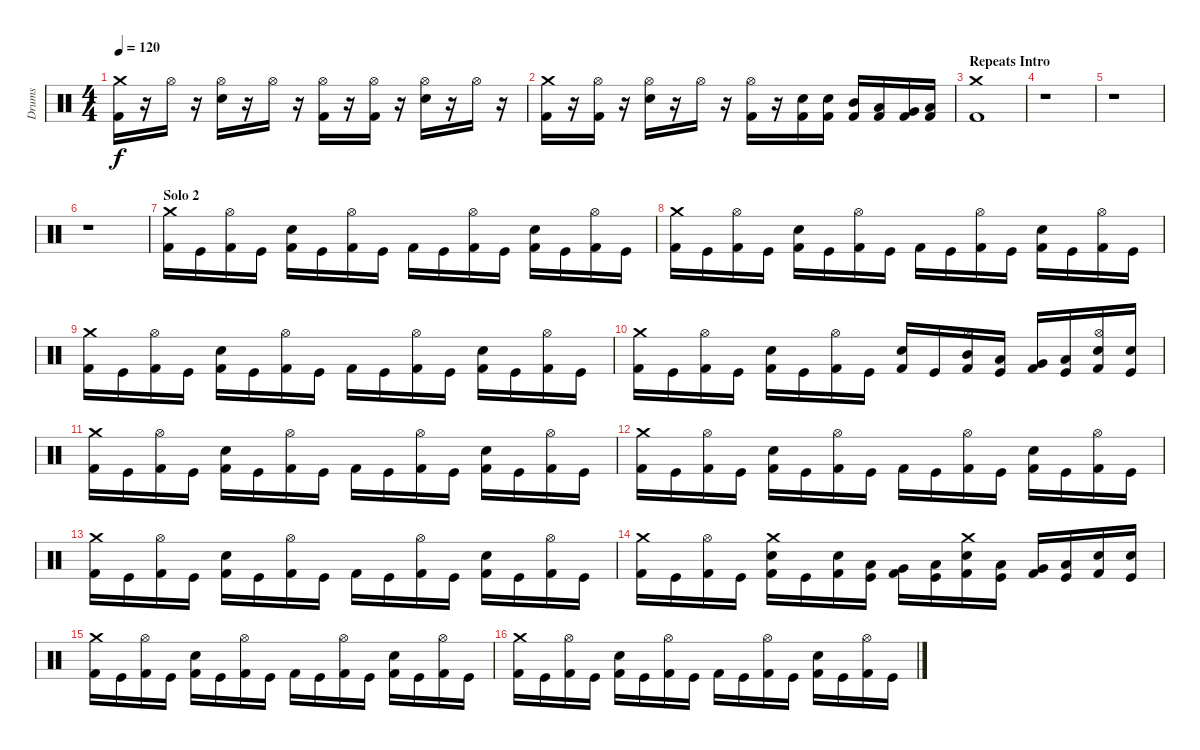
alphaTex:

\track ("Drums" "Drums") {instrument percussion}
\staff {score}
\articulation defaults
\ts (4 4)
\tempo 120
\clef neutral
\ks c
("Crash medium (hit)" "Kick (hit) 2").16{dy f} r.16 "Hi-Hat (open)".16 r.16 ("Hi-Hat (open)" "Electric Snare (hit)").16 r.16 "Hi-Hat (open)".16 r.16 ("Hi-Hat (open)" "Kick (hit) 2").16 r.16 ("Hi-Hat (open)" "Kick (hit) 2").16 r.16 ("Hi-Hat (open)" "Electric Snare (hit)").16 r.16 "Hi-Hat (open)".16 r.16 |
("Crash medium (hit)" "Kick (hit) 2").16 r.16 ("Hi-Hat (open)" "Kick (hit) 2").16 r.16 ("Hi-Hat (open)" "Electric Snare (hit)").16 r.16 "Hi-Hat (open)".16 r.16 ("Hi-Hat (open)" "Kick (hit) 2").16 r.16 ("Electric Snare (hit)" "Kick (hit) 2").16 ("Electric Snare (hit)" "Kick (hit) 2").16 ("Mid Tom (hit)" "Kick (hit) 2").16 ("Low Tom (hit)" "Kick (hit) 2").16 ("Very Low Tom (hit)" "Kick (hit) 2").16 ("Low Floor Tom (hit)" "Kick (hit) 2").16 |
\section ("" "Repeats Intro")
("Crash medium (hit)" "Kick (hit) 2").1 |
r.1 |
r.1 |
r.1 |
\section ("" "Solo 2")
("Crash medium (hit)" "Kick (hit) 2").16 "Kick (hit)".16 ("Hi-Hat (open)" "Kick (hit) 2").16 "Kick (hit)".16 ("Electric Snare (hit)" "Kick (hit) 2").16 "Kick (hit)".16 ("Hi-Hat (open)" "Kick (hit) 2").16 "Kick (hit)".16 "Kick (hit) 2".16 "Kick (hit)".16 ("Hi-Hat (open)" "Kick (hit) 2").16 "Kick (hit)".16 ("Electric Snare (hit)" "Kick (hit) 2").16 "Kick (hit)".16 ("Hi-Hat (open)" "Kick (hit) 2").16 "Kick (hit)".16 |
("Crash medium (hit)" "Kick (hit) 2").16 "Kick (hit)".16 ("Hi-Hat (open)" "Kick (hit) 2").16 "Kick (hit)".16 ("Electric Snare (hit)" "Kick (hit) 2").16 "Kick (hit)".16 ("Hi-Hat (open)" "Kick (hit) 2").16 "Kick (hit)".16 "Kick (hit) 2".16 "Kick (hit)".16 ("Hi-Hat (open)" "Kick (hit) 2").16 "Kick (hit)".16 ("Electric Snare (hit)" "Kick (hit) 2").16 "Kick (hit)".16 ("Hi-Hat (open)" "Kick (hit) 2").16 "Kick (hit)".16 |
("Crash medium (hit)" "Kick (hit) 2").16 "Kick (hit)".16 ("Hi-Hat (open)" "Kick (hit) 2").16 "Kick (hit)".16 ("Electric Snare (hit)" "Kick (hit) 2").16 "Kick (hit)".16 ("Hi-Hat (open)" "Kick (hit) 2").16 "Kick (hit)".16 "Kick (hit) 2".16 "Kick (hit)".16 ("Hi-Hat (open)" "Kick (hit) 2").16 "Kick (hit)".16 ("Electric Snare (hit)" "Kick (hit) 2").16 "Kick (hit)".16 ("Hi-Hat (open)" "Kick (hit) 2").16 "Kick (hit)".16 |
("Crash medium (hit)" "Kick (hit) 2").16 "Kick (hit)".16 ("Hi-Hat (open)" "Kick (hit) 2").16 "Kick (hit)".16 ("Electric Snare (hit)" "Kick (hit) 2").16 "Kick (hit)".16 ("Hi-Hat (open)" "Kick (hit) 2").16 "Kick (hit)".16 ("Electric Snare (hit)" "Kick (hit) 2").16 "Kick (hit)".16 ("Hi-Hat (open)" "Mid Tom (hit)" "Kick (hit) 2").16 ("Low Tom (hit)" "Kick (hit)").16 ("Very Low Tom (hit)" "Kick (hit) 2").16 ("Low Floor Tom (hit)" "Kick (hit)").16 ("Hi-Hat (open)" "Electric Snare (hit)" "Kick (hit) 2").16 ("Electric Snare (hit)" "Kick (hit)").16 |
("Crash medium (hit)" "Kick (hit) 2").16 "Kick (hit)".16 ("Hi-Hat (open)" "Kick (hit) 2").16 "Kick (hit)".16 ("Electric Snare (hit)" "Kick (hit) 2").16 "Kick (hit)".16 ("Hi-Hat (open)" "Kick (hit) 2").16 "Kick (hit)".16 "Kick (hit) 2".16 "Kick (hit)".16 ("Hi-Hat (open)" "Kick (hit) 2").16 "Kick (hit)".16 ("Electric Snare (hit)" "Kick (hit) 2").16 "Kick (hit)".16 ("Hi-Hat (open)" "Kick (hit) 2").16 "Kick (hit)".16 |
("Crash medium (hit)" "Kick (hit) 2").16 "Kick (hit)".16 ("Hi-Hat (open)" "Kick (hit) 2").16 "Kick (hit)".16 ("Electric Snare (hit)" "Kick (hit) 2").16 "Kick (hit)".16 ("Hi-Hat (open)" "Kick (hit) 2").16 "Kick (hit)".16 "Kick (hit) 2".16 "Kick (hit)".16 ("Hi-Hat (open)" "Kick (hit) 2").16 "Kick (hit)".16 ("Electric Snare (hit)" "Kick (hit) 2").16 "Kick (hit)".16 ("Hi-Hat (open)" "Kick (hit) 2").16 "Kick (hit)".16 |
("Crash medium (hit)" "Kick (hit) 2").16 "Kick (hit)".16 ("Hi-Hat (open)" "Kick (hit) 2").16 "Kick (hit)".16 ("Electric Snare (hit)" "Kick (hit) 2").16 "Kick (hit)".16 ("Hi-Hat (open)" "Kick (hit) 2").16 "Kick (hit)".16 "Kick (hit) 2".16 "Kick (hit)".16 ("Hi-Hat (open)" "Kick (hit) 2").16 "Kick (hit)".16 ("Electric Snare (hit)" "Kick (hit) 2").16 "Kick (hit)".16 ("Hi-Hat (open)" "Kick (hit) 2").16 "Kick (hit)".16 |
("Crash medium (hit)" "Kick (hit) 2").16 "Kick (hit)".16 ("Hi-Hat (open)" "Kick (hit) 2").16 "Kick (hit)".16 ("Crash medium (hit)" "Electric Snare (hit)" "Kick (hit) 2").16 "Kick (hit)".16 ("Electric Snare (hit)" "Kick (hit) 2").16 ("Low Tom (hit)" "Kick (hit)").16 ("Very Low Tom (hit)" "Kick (hit) 2").16 ("Low Floor Tom (hit)" "Kick (hit)").16 ("Crash medium (hit)" "Electric Snare (hit)" "Kick (hit) 2").16 ("Low Tom (hit)" "Kick (hit)").16 ("Very Low Tom (hit)" "Kick (hit) 2").16 ("Low Floor Tom (hit)" "Kick (hit)").16 ("Electric Snare (hit)" "Kick (hit) 2").16 ("Electric Snare (hit)" "Kick (hit)").16 |
("Crash medium (hit)" "Kick (hit) 2").16 "Kick (hit)".16 ("Hi-Hat (open)" "Kick (hit) 2").16 "Kick (hit)".16 ("Electric Snare (hit)" "Kick (hit) 2").16 "Kick (hit)".16 ("Hi-Hat (open)" "Kick (hit) 2").16 "Kick (hit)".16 "Kick (hit) 2".16 "Kick (hit)".16 ("Hi-Hat (open)" "Kick (hit) 2").16 "Kick (hit)".16 ("Electric Snare (hit)" "Kick (hit) 2").16 "Kick (hit)".16 ("Hi-Hat (open)" "Kick (hit) 2").16 "Kick (hit)".16 |
("Crash medium (hit)" "Kick (hit) 2").16 "Kick (hit)".16 ("Hi-Hat (open)" "Kick (hit) 2").16 "Kick (hit)".16 ("Electric Snare (hit)" "Kick (hit) 2").16 "Kick (hit)".16 ("Hi-Hat (open)" "Kick (hit) 2").16 "Kick (hit)".16 "Kick (hit) 2".16 "Kick (hit)".16 ("Hi-Hat (open)" "Kick (hit) 2").16 "Kick (hit)".16 ("Electric Snare (hit)" "Kick (hit) 2").16 "Kick (hit)".16 ("Hi-Hat (open)" "Kick (hit) 2").16 "Kick (hit)".16
